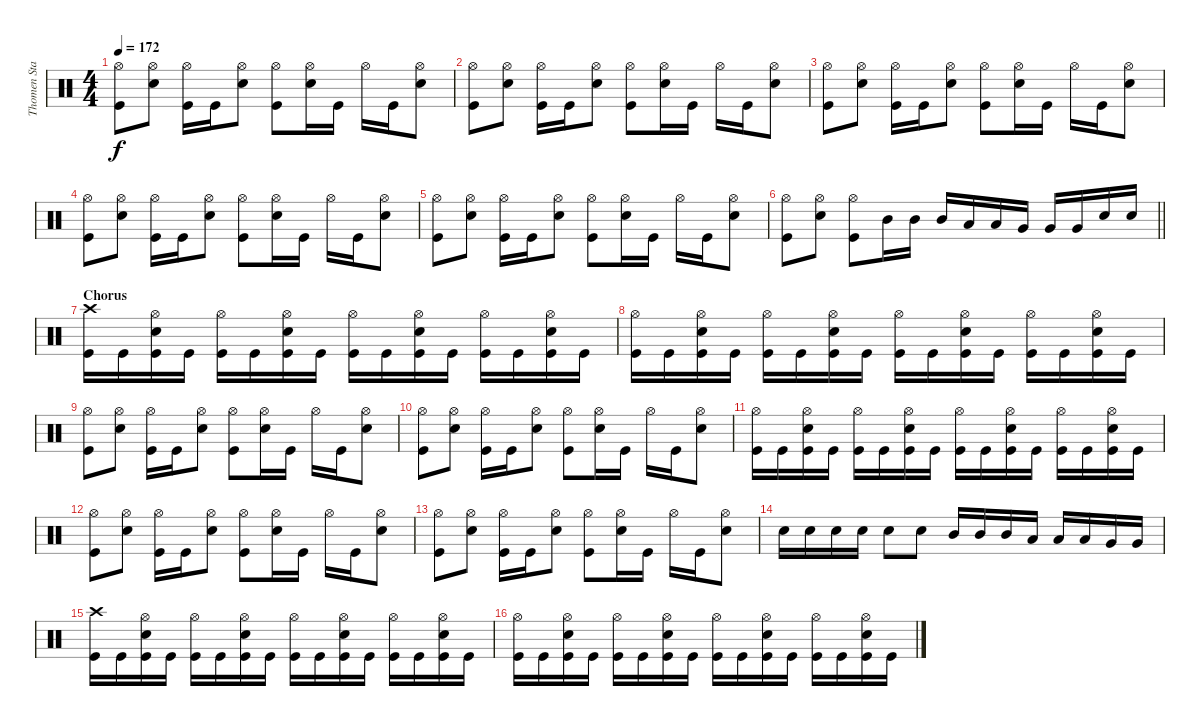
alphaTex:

\track ("Thomen Stauch" "Thomen Sta") {instrument percussion}
\staff {score}
\articulation defaults
\ts (4 4)
\tempo 172
\clef neutral
\ks c
("Hi-Hat (open)" "Kick (hit)").8{dy f} ("Hi-Hat (open)" "Snare (hit) 2").8 ("Hi-Hat (open)" "Kick (hit)").16 "Kick (hit)".16 ("Hi-Hat (open)" "Snare (hit) 2").8 ("Hi-Hat (open)" "Kick (hit)").8 ("Hi-Hat (open)" "Snare (hit) 2").16 "Kick (hit)".16 "Hi-Hat (open)".16 "Kick (hit)".16 ("Hi-Hat (open)" "Snare (hit) 2").8 |
("Hi-Hat (open)" "Kick (hit)").8 ("Hi-Hat (open)" "Snare (hit) 2").8 ("Hi-Hat (open)" "Kick (hit)").16 "Kick (hit)".16 ("Hi-Hat (open)" "Snare (hit) 2").8 ("Hi-Hat (open)" "Kick (hit)").8 ("Hi-Hat (open)" "Snare (hit) 2").16 "Kick (hit)".16 "Hi-Hat (open)".16 "Kick (hit)".16 ("Hi-Hat (open)" "Snare (hit) 2").8 |
("Hi-Hat (open)" "Kick (hit)").8 ("Hi-Hat (open)" "Snare (hit) 2").8 ("Hi-Hat (open)" "Kick (hit)").16 "Kick (hit)".16 ("Hi-Hat (open)" "Snare (hit) 2").8 ("Hi-Hat (open)" "Kick (hit)").8 ("Hi-Hat (open)" "Snare (hit) 2").16 "Kick (hit)".16 "Hi-Hat (open)".16 "Kick (hit)".16 ("Hi-Hat (open)" "Snare (hit) 2").8 |
("Hi-Hat (open)" "Kick (hit)").8 ("Hi-Hat (open)" "Snare (hit) 2").8 ("Hi-Hat (open)" "Kick (hit)").16 "Kick (hit)".16 ("Hi-Hat (open)" "Snare (hit) 2").8 ("Hi-Hat (open)" "Kick (hit)").8 ("Hi-Hat (open)" "Snare (hit) 2").16 "Kick (hit)".16 "Hi-Hat (open)".16 "Kick (hit)".16 ("Hi-Hat (open)" "Snare (hit) 2").8 |
("Hi-Hat (open)" "Kick (hit)").8 ("Hi-Hat (open)" "Snare (hit) 2").8 ("Hi-Hat (open)" "Kick (hit)").16 "Kick (hit)".16 ("Hi-Hat (open)" "Snare (hit) 2").8 ("Hi-Hat (open)" "Kick (hit)").8 ("Hi-Hat (open)" "Snare (hit) 2").16 "Kick (hit)".16 "Hi-Hat (open)".16 "Kick (hit)".16 ("Hi-Hat (open)" "Snare (hit) 2").8 |
\barLineRight lightlight
("Hi-Hat (open)" "Kick (hit)").8 ("Hi-Hat (open)" "Snare (hit) 2").8 ("Hi-Hat (open)" "Kick (hit)").8 "Mid Tom (hit)".16 "Mid Tom (hit)".16 "Mid Tom (hit)".16 "Low Tom (hit)".16 "Low Tom (hit)".16 "Very Low Tom (hit)".16 "Very Low Tom (hit)".16 "Very Low Tom (hit)".16 "Snare (hit) 2".16 "Snare (hit) 2".16 |
\section ("" "Chorus")
("Crash high (hit)" "Kick (hit)").16 "Kick (hit)".16 ("Hi-Hat (open)" "Snare (hit) 2" "Kick (hit)").16 "Kick (hit)".16 ("Hi-Hat (open)" "Kick (hit)").16 "Kick (hit)".16 ("Hi-Hat (open)" "Snare (hit) 2" "Kick (hit)").16 "Kick (hit)".16 ("Hi-Hat (open)" "Kick (hit)").16 "Kick (hit)".16 ("Hi-Hat (open)" "Snare (hit) 2" "Kick (hit)").16 "Kick (hit)".16 ("Hi-Hat (open)" "Kick (hit)").16 "Kick (hit)".16 ("Hi-Hat (open)" "Snare (hit) 2" "Kick (hit)").16 "Kick (hit)".16 |
("Hi-Hat (open)" "Kick (hit)").16 "Kick (hit)".16 ("Hi-Hat (open)" "Snare (hit) 2" "Kick (hit)").16 "Kick (hit)".16 ("Hi-Hat (open)" "Kick (hit)").16 "Kick (hit)".16 ("Hi-Hat (open)" "Snare (hit) 2" "Kick (hit)").16 "Kick (hit)".16 ("Hi-Hat (open)" "Kick (hit)").16 "Kick (hit)".16 ("Hi-Hat (open)" "Snare (hit) 2" "Kick (hit)").16 "Kick (hit)".16 ("Hi-Hat (open)" "Kick (hit)").16 "Kick (hit)".16 ("Hi-Hat (open)" "Snare (hit) 2" "Kick (hit)").16 "Kick (hit)".16 |
("Hi-Hat (open)" "Kick (hit)").8 ("Hi-Hat (open)" "Snare (hit) 2").8 ("Hi-Hat (open)" "Kick (hit)").16 "Kick (hit)".16 ("Hi-Hat (open)" "Snare (hit) 2").8 ("Hi-Hat (open)" "Kick (hit)").8 ("Hi-Hat (open)" "Snare (hit) 2").16 "Kick (hit)".16 "Hi-Hat (open)".16 "Kick (hit)".16 ("Hi-Hat (open)" "Snare (hit) 2").8 |
("Hi-Hat (open)" "Kick (hit)").8 ("Hi-Hat (open)" "Snare (hit) 2").8 ("Hi-Hat (open)" "Kick (hit)").16 "Kick (hit)".16 ("Hi-Hat (open)" "Snare (hit) 2").8 ("Hi-Hat (open)" "Kick (hit)").8 ("Hi-Hat (open)" "Snare (hit) 2").16 "Kick (hit)".16 "Hi-Hat (open)".16 "Kick (hit)".16 ("Hi-Hat (open)" "Snare (hit) 2").8 |
("Hi-Hat (open)" "Kick (hit)").16 "Kick (hit)".16 ("Hi-Hat (open)" "Snare (hit) 2" "Kick (hit)").16 "Kick (hit)".16 ("Hi-Hat (open)" "Kick (hit)").16 "Kick (hit)".16 ("Hi-Hat (open)" "Snare (hit) 2" "Kick (hit)").16 "Kick (hit)".16 ("Hi-Hat (open)" "Kick (hit)").16 "Kick (hit)".16 ("Hi-Hat (open)" "Snare (hit) 2" "Kick (hit)").16 "Kick (hit)".16 ("Hi-Hat (open)" "Kick (hit)").16 "Kick (hit)".16 ("Hi-Hat (open)" "Snare (hit) 2" "Kick (hit)").16 "Kick (hit)".16 |
("Hi-Hat (open)" "Kick (hit)").8 ("Hi-Hat (open)" "Snare (hit) 2").8 ("Hi-Hat (open)" "Kick (hit)").16 "Kick (hit)".16 ("Hi-Hat (open)" "Snare (hit) 2").8 ("Hi-Hat (open)" "Kick (hit)").8 ("Hi-Hat (open)" "Snare (hit) 2").16 "Kick (hit)".16 "Hi-Hat (open)".16 "Kick (hit)".16 ("Hi-Hat (open)" "Snare (hit) 2").8 |
("Hi-Hat (open)" "Kick (hit)").8 ("Hi-Hat (open)" "Snare (hit) 2").8 ("Hi-Hat (open)" "Kick (hit)").16 "Kick (hit)".16 ("Hi-Hat (open)" "Snare (hit) 2").8 ("Hi-Hat (open)" "Kick (hit)").8 ("Hi-Hat (open)" "Snare (hit) 2").16 "Kick (hit)".16 "Hi-Hat (open)".16 "Kick (hit)".16 ("Hi-Hat (open)" "Snare (hit) 2").8 |
"Snare (hit) 2".16 "Snare (hit) 2".16 "Snare (hit) 2".16 "Snare (hit) 2".16 "Snare (hit) 2".8 "Snare (hit) 2".8 "Mid Tom (hit)".16 "Mid Tom (hit)".16 "Mid Tom (hit)".16 "Low Tom (hit)".16 "Low Tom (hit)".16 "Low Tom (hit)".16 "Very Low Tom (hit)".16 "Very Low Tom (hit)".16 |
("Crash high (hit)" "Kick (hit)").16 "Kick (hit)".16 ("Hi-Hat (open)" "Snare (hit) 2" "Kick (hit)").16 "Kick (hit)".16 ("Hi-Hat (open)" "Kick (hit)").16 "Kick (hit)".16 ("Hi-Hat (open)" "Snare (hit) 2" "Kick (hit)").16 "Kick (hit)".16 ("Hi-Hat (open)" "Kick (hit)").16 "Kick (hit)".16 ("Hi-Hat (open)" "Snare (hit) 2" "Kick (hit)").16 "Kick (hit)".16 ("Hi-Hat (open)" "Kick (hit)").16 "Kick (hit)".16 ("Hi-Hat (open)" "Snare (hit) 2" "Kick (hit)").16 "Kick (hit)".16 |
("Hi-Hat (open)" "Kick (hit)").16 "Kick (hit)".16 ("Hi-Hat (open)" "Snare (hit) 2" "Kick (hit)").16 "Kick (hit)".16 ("Hi-Hat (open)" "Kick (hit)").16 "Kick (hit)".16 ("Hi-Hat (open)" "Snare (hit) 2" "Kick (hit)").16 "Kick (hit)".16 ("Hi-Hat (open)" "Kick (hit)").16 "Kick (hit)".16 ("Hi-Hat (open)" "Snare (hit) 2" "Kick (hit)").16 "Kick (hit)".16 ("Hi-Hat (open)" "Kick (hit)").16 "Kick (hit)".16 ("Hi-Hat (open)" "Snare (hit) 2" "Kick (hit)").16 "Kick (hit)".16
